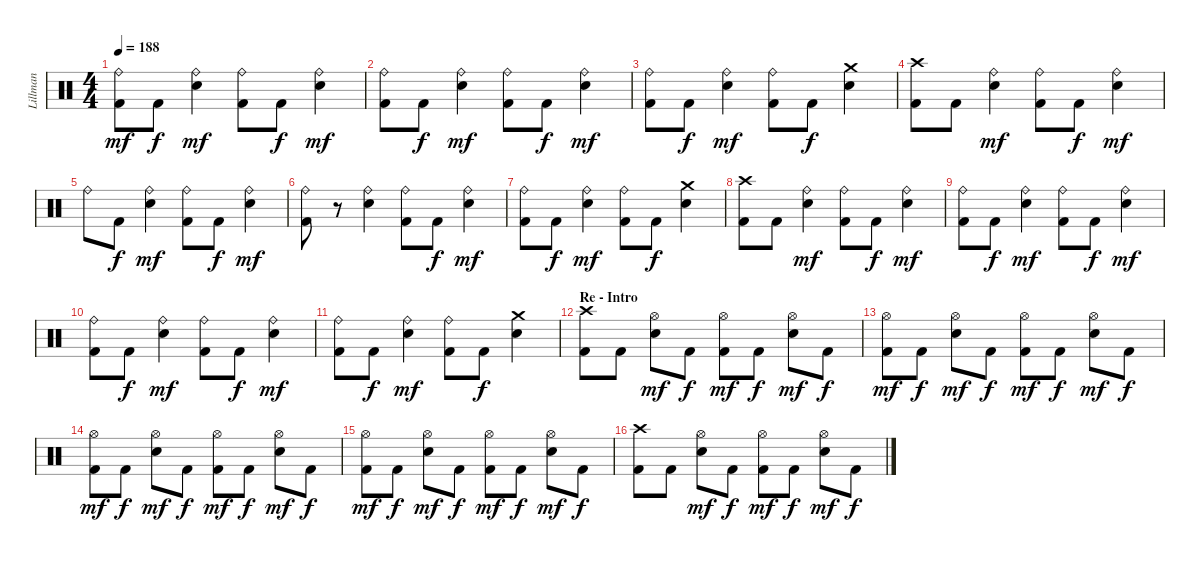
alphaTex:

\track ("Lillman" "Lillman") {instrument percussion}
\staff {score}
\articulation defaults
\ts (4 4)
\tempo 188
\clef neutral
\ks c
("Ride (bell)" "Kick (hit) 2").8{dy mf} "Kick (hit) 2".8{dy f} ("Ride (bell)" "Snare (hit) 2").4{dy mf} ("Ride (bell)" "Kick (hit) 2").8 "Kick (hit) 2".8{dy f} ("Ride (bell)" "Snare (hit) 2").4{dy mf} |
("Ride (bell)" "Kick (hit) 2").8 "Kick (hit) 2".8{dy f} ("Ride (bell)" "Snare (hit) 2").4{dy mf} ("Ride (bell)" "Kick (hit) 2").8 "Kick (hit) 2".8{dy f} ("Ride (bell)" "Snare (hit) 2").4{dy mf} |
("Ride (bell)" "Kick (hit) 2").8 "Kick (hit) 2".8{dy f} ("Ride (bell)" "Snare (hit) 2").4{dy mf} ("Ride (bell)" "Kick (hit) 2").8 "Kick (hit) 2".8{dy f} ("Crash medium (hit)" "Snare (hit) 2").4 |
("Crash high (hit)" "Kick (hit) 2").8 "Kick (hit) 2".8 ("Ride (bell)" "Snare (hit) 2").4{dy mf} ("Ride (bell)" "Kick (hit) 2").8 "Kick (hit) 2".8{dy f} ("Ride (bell)" "Snare (hit) 2").4{dy mf} |
"Ride (bell)".8 "Kick (hit) 2".8{dy f} ("Ride (bell)" "Snare (hit) 2").4{dy mf} ("Ride (bell)" "Kick (hit) 2").8 "Kick (hit) 2".8{dy f} ("Ride (bell)" "Snare (hit) 2").4{dy mf} |
("Ride (bell)" "Kick (hit) 2").8 r.8 ("Ride (bell)" "Snare (hit) 2").4 ("Ride (bell)" "Kick (hit) 2").8 "Kick (hit) 2".8{dy f} ("Ride (bell)" "Snare (hit) 2").4{dy mf} |
("Ride (bell)" "Kick (hit) 2").8 "Kick (hit) 2".8{dy f} ("Ride (bell)" "Snare (hit) 2").4{dy mf} ("Ride (bell)" "Kick (hit) 2").8 "Kick (hit) 2".8{dy f} ("Crash medium (hit)" "Snare (hit) 2").4 |
("Crash high (hit)" "Kick (hit) 2").8 "Kick (hit) 2".8 ("Ride (bell)" "Snare (hit) 2").4{dy mf} ("Ride (bell)" "Kick (hit) 2").8 "Kick (hit) 2".8{dy f} ("Ride (bell)" "Snare (hit) 2").4{dy mf} |
("Ride (bell)" "Kick (hit) 2").8 "Kick (hit) 2".8{dy f} ("Ride (bell)" "Snare (hit) 2").4{dy mf} ("Ride (bell)" "Kick (hit) 2").8 "Kick (hit) 2".8{dy f} ("Ride (bell)" "Snare (hit) 2").4{dy mf} |
("Ride (bell)" "Kick (hit) 2").8 "Kick (hit) 2".8{dy f} ("Ride (bell)" "Snare (hit) 2").4{dy mf} ("Ride (bell)" "Kick (hit) 2").8 "Kick (hit) 2".8{dy f} ("Ride (bell)" "Snare (hit) 2").4{dy mf} |
("Ride (bell)" "Kick (hit) 2").8 "Kick (hit) 2".8{dy f} ("Ride (bell)" "Snare (hit) 2").4{dy mf} ("Ride (bell)" "Kick (hit) 2").8 "Kick (hit) 2".8{dy f} ("Crash medium (hit)" "Snare (hit) 2").4 |
\section ("" "Re - Intro")
("Crash high (hit)" "Kick (hit) 2").8 "Kick (hit) 2".8 ("Hi-Hat (open)" "Snare (hit) 2").8{dy mf} "Kick (hit) 2".8{dy f} ("Hi-Hat (open)" "Kick (hit) 2").8{dy mf} "Kick (hit) 2".8{dy f} ("Hi-Hat (open)" "Snare (hit) 2").8{dy mf} "Kick (hit) 2".8{dy f} |
("Hi-Hat (open)" "Kick (hit) 2").8{dy mf} "Kick (hit) 2".8{dy f} ("Hi-Hat (open)" "Snare (hit) 2").8{dy mf} "Kick (hit) 2".8{dy f} ("Hi-Hat (open)" "Kick (hit) 2").8{dy mf} "Kick (hit) 2".8{dy f} ("Hi-Hat (open)" "Snare (hit) 2").8{dy mf} "Kick (hit) 2".8{dy f} |
("Hi-Hat (open)" "Kick (hit) 2").8{dy mf} "Kick (hit) 2".8{dy f} ("Hi-Hat (open)" "Snare (hit) 2").8{dy mf} "Kick (hit) 2".8{dy f} ("Hi-Hat (open)" "Kick (hit) 2").8{dy mf} "Kick (hit) 2".8{dy f} ("Hi-Hat (open)" "Snare (hit) 2").8{dy mf} "Kick (hit) 2".8{dy f} |
("Hi-Hat (open)" "Kick (hit) 2").8{dy mf} "Kick (hit) 2".8{dy f} ("Hi-Hat (open)" "Snare (hit) 2").8{dy mf} "Kick (hit) 2".8{dy f} ("Hi-Hat (open)" "Kick (hit) 2").8{dy mf} "Kick (hit) 2".8{dy f} ("Hi-Hat (open)" "Snare (hit) 2").8{dy mf} "Kick (hit) 2".8{dy f} |
("Crash high (hit)" "Kick (hit) 2").8 "Kick (hit) 2".8 ("Hi-Hat (open)" "Snare (hit) 2").8{dy mf} "Kick (hit) 2".8{dy f} ("Hi-Hat (open)" "Kick (hit) 2").8{dy mf} "Kick (hit) 2".8{dy f} ("Hi-Hat (open)" "Snare (hit) 2").8{dy mf} "Kick (hit) 2".8{dy f}
